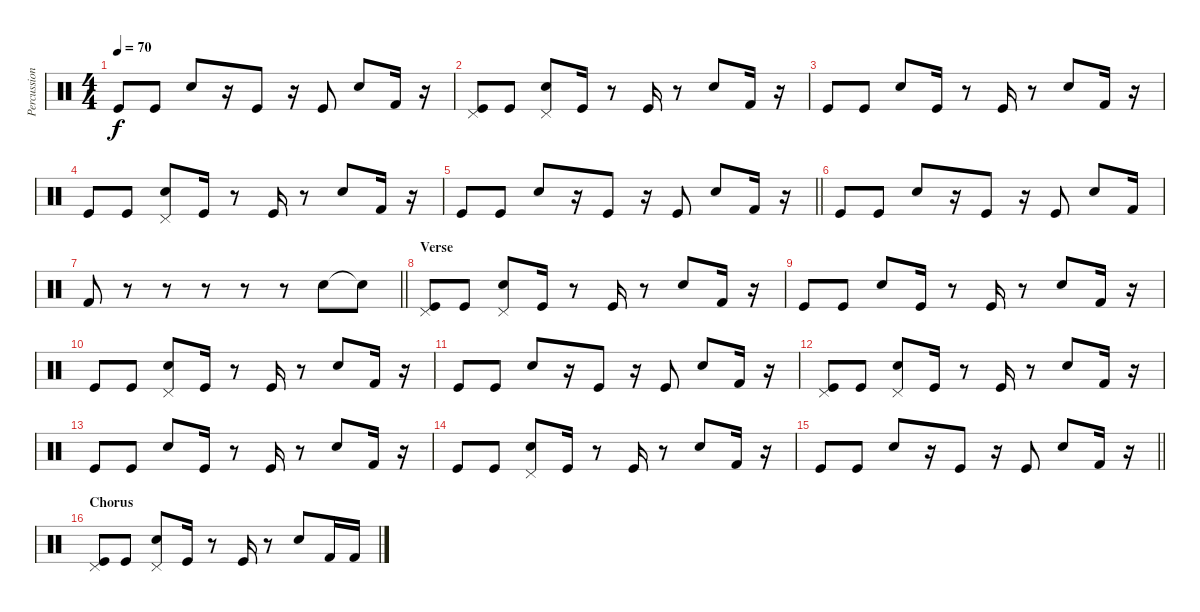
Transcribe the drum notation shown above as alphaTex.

\track ("Percussion" "Percussion") {instrument percussion}
\staff {score}
\articulation defaults
\ts (4 4)
\tempo 70
\clef neutral
\ks c "Kick (hit)".8{dy f} "Kick (hit)".8 "Snare (hit) 2".8
r.16 "Kick (hit)".8 r.16 "Kick (hit)".8 "Snare (hit) 2".8 "Kick (hit) 2".16 r.16 |
("Pedal Hi-Hat (hit)" "Kick (hit)").8 "Kick (hit)".8 ("Pedal Hi-Hat (hit)" "Snare (hit) 2").8 "Kick (hit)".16 r.8 "Kick (hit)".16 r.8 "Snare (hit) 2".8 "Kick (hit) 2".16 r.16 |
"Kick (hit)".8 "Kick (hit)".8 "Snare (hit) 2".8 "Kick (hit)".16 r.8 "Kick (hit)".16 r.8 "Snare (hit) 2".8 "Kick (hit) 2".16 r.16 |
"Kick (hit)".8 "Kick (hit)".8 ("Pedal Hi-Hat (hit)" "Snare (hit) 2").8 "Kick (hit)".16 r.8 "Kick (hit)".16 r.8 "Snare (hit) 2".8 "Kick (hit) 2".16 r.16 |
\barLineRight lightlight "Kick (hit)".8 "Kick (hit)".8 "Snare (hit) 2".8
r.16 "Kick (hit)".8 r.16 "Kick (hit)".8 "Snare (hit) 2".8 "Kick (hit) 2".16 r.16 |
"Kick (hit)".8 "Kick (hit)".8 "Snare (hit) 2".8 r.16 "Kick (hit)".8 r.16 "Kick (hit)".8 "Snare (hit) 2".8 "Kick (hit) 2".16 |
\barLineRight lightlight "Kick (hit) 2".8
r.8 r.8 r.8 r.8 r.8 "Snare (hit) 2".8 "Snare (hit)"{t}.8 |
\section ("" "Verse")
("Pedal Hi-Hat (hit)" "Kick (hit)").8 "Kick (hit)".8 ("Pedal Hi-Hat (hit)" "Snare (hit) 2").8 "Kick (hit)".16 r.8 "Kick (hit)".16 r.8 "Snare (hit) 2".8 "Kick (hit) 2".16 r.16 |
"Kick (hit)".8 "Kick (hit)".8 "Snare (hit) 2".8 "Kick (hit)".16 r.8 "Kick (hit)".16 r.8 "Snare (hit) 2".8 "Kick (hit) 2".16 r.16 |
"Kick (hit)".8 "Kick (hit)".8 ("Pedal Hi-Hat (hit)" "Snare (hit) 2").8 "Kick (hit)".16 r.8 "Kick (hit)".16 r.8 "Snare (hit) 2".8 "Kick (hit) 2".16 r.16 |
"Kick (hit)".8 "Kick (hit)".8 "Snare (hit) 2".8 r.16 "Kick (hit)".8 r.16 "Kick (hit)".8 "Snare (hit) 2".8 "Kick (hit) 2".16 r.16 |
("Pedal Hi-Hat (hit)" "Kick (hit)").8 "Kick (hit)".8 ("Pedal Hi-Hat (hit)" "Snare (hit) 2").8 "Kick (hit)".16 r.8 "Kick (hit)".16 r.8 "Snare (hit) 2".8 "Kick (hit) 2".16 r.16 |
"Kick (hit)".8 "Kick (hit)".8 "Snare (hit) 2".8 "Kick (hit)".16 r.8 "Kick (hit)".16 r.8 "Snare (hit) 2".8 "Kick (hit) 2".16 r.16 |
"Kick (hit)".8 "Kick (hit)".8 ("Pedal Hi-Hat (hit)" "Snare (hit) 2").8 "Kick (hit)".16 r.8 "Kick (hit)".16 r.8 "Snare (hit) 2".8 "Kick (hit) 2".16 r.16 |
\barLineRight lightlight "Kick (hit)".8 "Kick (hit)".8 "Snare (hit) 2".8
r.16 "Kick (hit)".8 r.16 "Kick (hit)".8 "Snare (hit) 2".8 "Kick (hit) 2".16 r.16 |
\section ("" "Chorus")
("Pedal Hi-Hat (hit)" "Kick (hit)").8 "Kick (hit)".8 ("Pedal Hi-Hat (hit)" "Snare (hit) 2").8 "Kick (hit)".16 r.8 "Kick (hit)".16 r.8 "Snare (hit) 2".8 "Kick (hit) 2".16 "Kick (hit) 2".16
